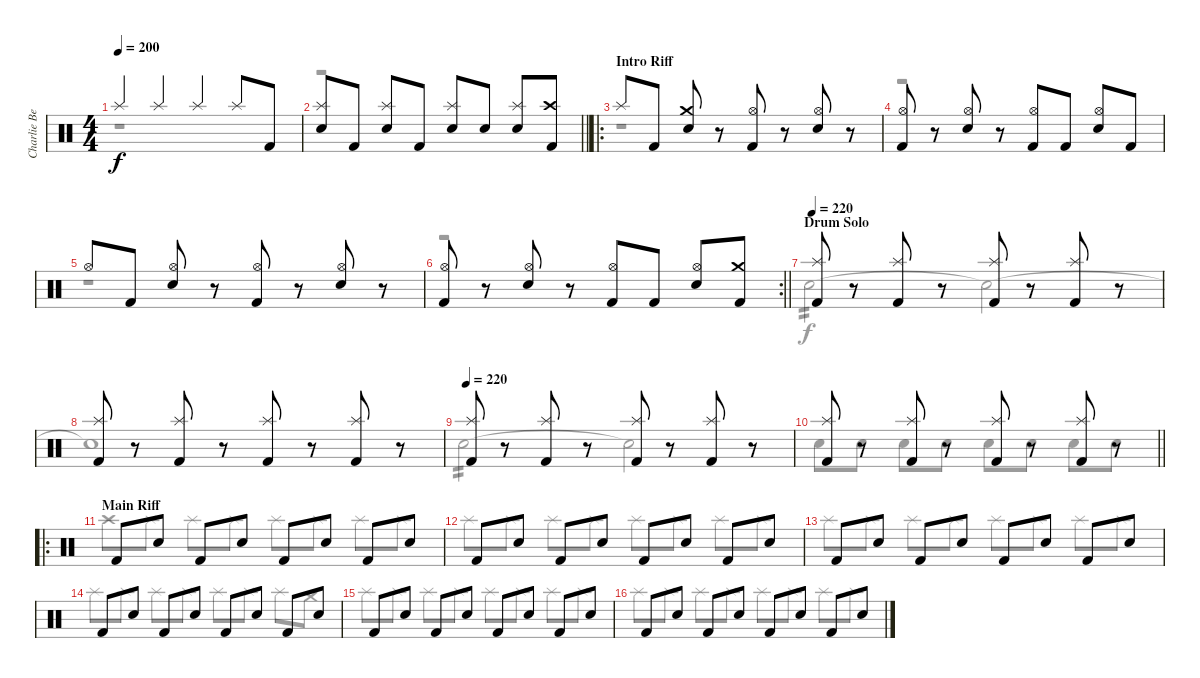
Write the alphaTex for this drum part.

\track ("Charlie Benante" "Charlie Be") {instrument percussion}
\staff {score}
\articulation defaults
\voice
\ts (4 4)
\tempo 200
\clef neutral
\ks c "Splash (hit)".4{dy f} "Splash (hit)".4 "Splash (hit)".4 "Splash (hit)".8 "Kick (hit) 2".8
|
\barLineRight lightlight
("Splash (hit)" "Electric Snare (hit)").8 "Kick (hit) 2".8 ("Splash (hit)" "Electric Snare (hit)").8 "Kick (hit) 2".8 ("Splash (hit)" "Electric Snare (hit)").8 "Electric Snare (hit)".8 ("Splash (hit)" "Electric Snare (hit)").8 ("Crash high (hit)" "Kick (hit) 2").8 |
\ro
\section ("" "Intro Riff")
"Splash (hit)".8 "Kick (hit) 2".8 ("Crash medium (hit)" "Electric Snare (hit)").8 r.8 ("Hi-Hat (open)" "Kick (hit) 2").8 r.8 ("Hi-Hat (open)" "Electric Snare (hit)").8 r.8 |
("Hi-Hat (open)" "Kick (hit) 2").8 r.8 ("Hi-Hat (open)" "Electric Snare (hit)").8 r.8 ("Hi-Hat (open)" "Kick (hit) 2").8 "Kick (hit) 2".8 ("Hi-Hat (open)" "Electric Snare (hit)").8 "Kick (hit) 2".8 |
"Hi-Hat (open)".8 "Kick (hit) 2".8 ("Hi-Hat (open)" "Electric Snare (hit)").8 r.8 ("Hi-Hat (open)" "Kick (hit) 2").8 r.8 ("Hi-Hat (open)" "Electric Snare (hit)").8 r.8 |
\rc 2
\barLineRight lightlight
("Hi-Hat (open)" "Kick (hit) 2").8 r.8 ("Hi-Hat (open)" "Electric Snare (hit)").8 r.8 ("Hi-Hat (open)" "Kick (hit) 2").8 "Kick (hit) 2".8 ("Hi-Hat (open)" "Electric Snare (hit)").8 ("Crash medium (hit)" "Kick (hit) 2").8 |
\section ("" "Drum Solo")
\tempo 220
("Splash (hit)" "Kick (hit) 2").8 r.8 ("Splash (hit)" "Kick (hit) 2").8 r.8 ("Splash (hit)" "Kick (hit) 2").8 r.8 ("Splash (hit)" "Kick (hit) 2").8 r.8 |
("Splash (hit)" "Kick (hit) 2").8 r.8 ("Splash (hit)" "Kick (hit) 2").8 r.8 ("Splash (hit)" "Kick (hit) 2").8 r.8 ("Splash (hit)" "Kick (hit) 2").8 r.8 |
\tempo 220
("Splash (hit)" "Kick (hit) 2").8 r.8 ("Splash (hit)" "Kick (hit) 2").8 r.8 ("Splash (hit)" "Kick (hit) 2").8 r.8 ("Splash (hit)" "Kick (hit) 2").8 r.8 |
\barLineRight lightlight
("Splash (hit)" "Kick (hit) 2").8 r.8 ("Splash (hit)" "Kick (hit) 2").8 r.8 ("Splash (hit)" "Kick (hit) 2").8 r.8 ("Splash (hit)" "Kick (hit) 2").8 r.8 |
\ro
\section ("" "Main Riff")
"Kick (hit) 2".8 "Electric Snare (hit)".8 "Kick (hit) 2".8 "Electric Snare (hit)".8 "Kick (hit) 2".8 "Electric Snare (hit)".8 "Kick (hit) 2".8 "Electric Snare (hit)".8 |
"Kick (hit) 2".8 "Electric Snare (hit)".8 "Kick (hit) 2".8 "Electric Snare (hit)".8 "Kick (hit) 2".8 "Electric Snare (hit)".8 "Kick (hit) 2".8 "Electric Snare (hit)".8 |
"Kick (hit) 2".8 "Electric Snare (hit)".8 "Kick (hit) 2".8 "Electric Snare (hit)".8 "Kick (hit) 2".8 "Electric Snare (hit)".8 "Kick (hit) 2".8 "Electric Snare (hit)".8 |
"Kick (hit) 2".8 "Electric Snare (hit)".8 "Kick (hit) 2".8 "Electric Snare (hit)".8 "Kick (hit) 2".8 "Electric Snare (hit)".8 "Kick (hit) 2".8 "Electric Snare (hit)".8 |
"Kick (hit) 2".8 "Electric Snare (hit)".8 "Kick (hit) 2".8 "Electric Snare (hit)".8 "Kick (hit) 2".8 "Electric Snare (hit)".8 "Kick (hit) 2".8 "Electric Snare (hit)".8 |
"Kick (hit) 2".8 "Electric Snare (hit)".8 "Kick (hit) 2".8 "Electric Snare (hit)".8 "Kick (hit) 2".8 "Electric Snare (hit)".8 "Kick (hit) 2".8 "Electric Snare (hit)".8
\voice
\clef neutral
\ottava regular
\simile none
\ks c
r.1{dy f} |
\barLineRight lightlight
r.1 |
r.1 |
r.1 |
r.1 |
\barLineRight lightlight
r.1 |
"Electric Snare (hit)".2{tp 2} "Snare (hit)"{t}.2 |
"Snare (hit)"{t}.1 |
"Electric Snare (hit)".2{tp 2} "Snare (hit)"{t}.2 |
\barLineRight lightlight "Electric Snare (hit)".8 "Electric Snare (hit)".8 "Electric Snare (hit)".8 "Electric Snare (hit)".8 "Electric Snare (hit)".8 "Electric Snare (hit)".8 "Electric Snare (hit)".8 "Electric Snare (hit)".8
|
"Crash high (hit)".8 "Splash (hit)".8 "Splash (hit)".8 "Splash (hit)".8 "Splash (hit)".8 "Splash (hit)".8 "Splash (hit)".8 "Splash (hit)".8 |
"Splash (hit)".8 "Splash (hit)".8 "Splash (hit)".8 "Splash (hit)".8 "Splash (hit)".8 "Splash (hit)".8 "Splash (hit)".8 "Splash (hit)".8 |
"Splash (hit)".8 "Splash (hit)".8 "Splash (hit)".8 "Splash (hit)".8 "Splash (hit)".8 "Splash (hit)".8 "Splash (hit)".8 "Splash (hit)".8 |
"Splash (hit)".8 "Splash (hit)".8 "Splash (hit)".8 "Splash (hit)".8 "Splash (hit)".8 "Splash (hit)".8 "Splash (hit)".8 "Crash medium (hit)".8 |
"Splash (hit)".8 "Splash (hit)".8 "Splash (hit)".8 "Splash (hit)".8 "Splash (hit)".8 "Splash (hit)".8 "Splash (hit)".8 "Splash (hit)".8 |
"Splash (hit)".8 "Splash (hit)".8 "Splash (hit)".8 "Splash (hit)".8 "Splash (hit)".8 "Splash (hit)".8 "Splash (hit)".8 "Splash (hit)".8
